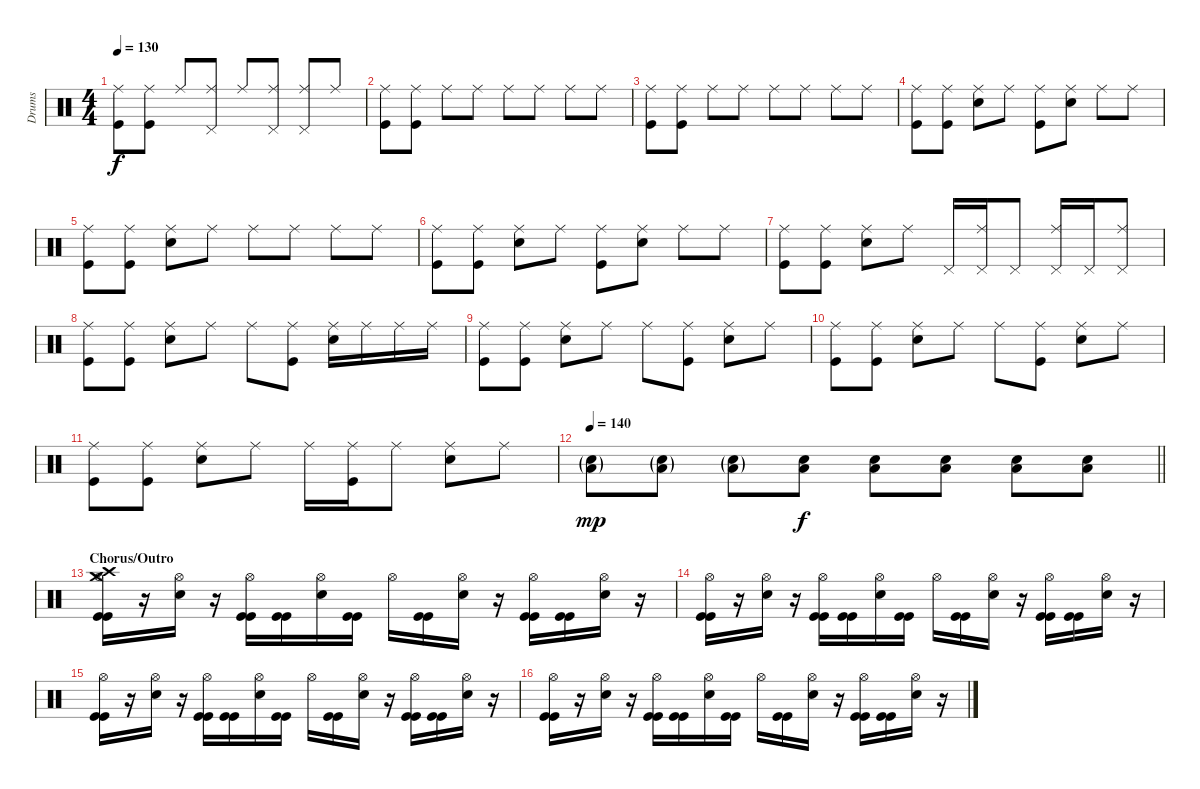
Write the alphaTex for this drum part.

\track ("Drums" "Drums") {instrument percussion}
\staff {score}
\articulation defaults
\ts (4 4)
\tempo 130
\clef neutral
\ks c
("Ride (middle)" "Kick (hit)").8{dy f} ("Ride (middle)" "Kick (hit)").8 "Ride (middle)".8 ("Ride (middle)" "Pedal Hi-Hat (hit)").8 "Ride (middle)".8 ("Ride (middle)" "Pedal Hi-Hat (hit)").8 ("Ride (middle)" "Pedal Hi-Hat (hit)").8 "Ride (middle)".8 |
("Ride (middle)" "Kick (hit)").8 ("Ride (middle)" "Kick (hit)").8 "Ride (middle)".8 "Ride (middle)".8 "Ride (middle)".8 "Ride (middle)".8 "Ride (middle)".8 "Ride (middle)".8 |
("Ride (middle)" "Kick (hit)").8 ("Ride (middle)" "Kick (hit)").8 "Ride (middle)".8 "Ride (middle)".8 "Ride (middle)".8 "Ride (middle)".8 "Ride (middle)".8 "Ride (middle)".8 |
("Ride (middle)" "Kick (hit)").8 ("Ride (middle)" "Kick (hit)").8 ("Ride (middle)" "Snare (hit) 2").8 "Ride (middle)".8 ("Ride (middle)" "Kick (hit)").8 ("Ride (middle)" "Snare (hit) 2").8 "Ride (middle)".8 "Ride (middle)".8 |
("Ride (middle)" "Kick (hit)").8 ("Ride (middle)" "Kick (hit)").8 ("Ride (middle)" "Snare (hit) 2").8 "Ride (middle)".8 "Ride (middle)".8 "Ride (middle)".8 "Ride (middle)".8 "Ride (middle)".8 |
("Ride (middle)" "Kick (hit)").8 ("Ride (middle)" "Kick (hit)").8 ("Ride (middle)" "Snare (hit) 2").8 "Ride (middle)".8 ("Ride (middle)" "Kick (hit)").8 ("Ride (middle)" "Snare (hit) 2").8 "Ride (middle)".8 "Ride (middle)".8 |
("Ride (middle)" "Kick (hit)").8 ("Ride (middle)" "Kick (hit)").8 ("Ride (middle)" "Snare (hit) 2").8 "Ride (middle)".8 "Pedal Hi-Hat (hit)".16 ("Ride (middle)" "Pedal Hi-Hat (hit)").16 "Pedal Hi-Hat (hit)".8 ("Ride (middle)" "Pedal Hi-Hat (hit)").16 "Pedal Hi-Hat (hit)".16 ("Ride (middle)" "Pedal Hi-Hat (hit)").8 |
("Ride (middle)" "Kick (hit)").8 ("Ride (middle)" "Kick (hit)").8 ("Ride (middle)" "Snare (hit) 2").8 "Ride (middle)".8 "Ride (middle)".8 ("Ride (middle)" "Kick (hit)").8 ("Ride (middle)" "Snare (hit) 2").16 "Ride (middle)".16 "Ride (middle)".16 "Ride (middle)".16 |
("Ride (middle)" "Kick (hit)").8 ("Ride (middle)" "Kick (hit)").8 ("Ride (middle)" "Snare (hit) 2").8 "Ride (middle)".8 "Ride (middle)".8 ("Ride (middle)" "Kick (hit)").8 ("Ride (middle)" "Snare (hit) 2").8 "Ride (middle)".8 |
("Ride (middle)" "Kick (hit)").8 ("Ride (middle)" "Kick (hit)").8 ("Ride (middle)" "Snare (hit) 2").8 "Ride (middle)".8 "Ride (middle)".8 ("Ride (middle)" "Kick (hit)").8 ("Ride (middle)" "Snare (hit) 2").8 "Ride (middle)".8 |
("Ride (middle)" "Kick (hit)").8 ("Ride (middle)" "Kick (hit)").8 ("Ride (middle)" "Snare (hit) 2").8 "Ride (middle)".8 "Ride (middle)".16 ("Ride (middle)" "Kick (hit)").16 "Ride (middle)".8 ("Ride (middle)" "Snare (hit) 2").8 "Ride (middle)".8 |
\tempo 140
\barLineRight lightlight
("Low Floor Tom (hit)"{g} "Snare (hit) 2"{g}).8{dy mp} ("Low Floor Tom (hit)"{g} "Snare (hit) 2"{g}).8 ("Low Floor Tom (hit)"{g} "Snare (hit) 2"{g}).8 ("Low Floor Tom (hit)" "Snare (hit) 2").8{dy f} ("Low Floor Tom (hit)" "Snare (hit) 2").8 ("Low Floor Tom (hit)" "Snare (hit) 2").8 ("Low Floor Tom (hit)" "Snare (hit) 2").8 ("Low Floor Tom (hit)" "Snare (hit) 2").8 |
\section ("" "Chorus/Outro")
("Crash medium (hit)" "Crash high (hit)" "Hi-Hat (open)" "Kick (hit)" "Kick (hit)").16 r.16 ("Hi-Hat (open)" "Snare (hit) 2").16 r.16 ("Hi-Hat (open)" "Kick (hit)" "Kick (hit)").16 ("Kick (hit)" "Kick (hit)").16 ("Hi-Hat (open)" "Snare (hit) 2").16 ("Kick (hit)" "Kick (hit)").16 "Hi-Hat (open)".16 ("Kick (hit)" "Kick (hit)").16 ("Hi-Hat (open)" "Snare (hit) 2").16 r.16 ("Hi-Hat (open)" "Kick (hit)" "Kick (hit)").16 ("Kick (hit)" "Kick (hit)").16 ("Hi-Hat (open)" "Snare (hit) 2").16 r.16 |
("Hi-Hat (open)" "Kick (hit)" "Kick (hit)").16 r.16 ("Hi-Hat (open)" "Snare (hit) 2").16 r.16 ("Hi-Hat (open)" "Kick (hit)" "Kick (hit)").16 ("Kick (hit)" "Kick (hit)").16 ("Hi-Hat (open)" "Snare (hit) 2").16 ("Kick (hit)" "Kick (hit)").16 "Hi-Hat (open)".16 ("Kick (hit)" "Kick (hit)").16 ("Hi-Hat (open)" "Snare (hit) 2").16 r.16 ("Hi-Hat (open)" "Kick (hit)" "Kick (hit)").16 ("Kick (hit)" "Kick (hit)").16 ("Hi-Hat (open)" "Snare (hit) 2").16 r.16 |
("Hi-Hat (open)" "Kick (hit)" "Kick (hit)").16 r.16 ("Hi-Hat (open)" "Snare (hit) 2").16 r.16 ("Hi-Hat (open)" "Kick (hit)" "Kick (hit)").16 ("Kick (hit)" "Kick (hit)").16 ("Hi-Hat (open)" "Snare (hit) 2").16 ("Kick (hit)" "Kick (hit)").16 "Hi-Hat (open)".16 ("Kick (hit)" "Kick (hit)").16 ("Hi-Hat (open)" "Snare (hit) 2").16 r.16 ("Hi-Hat (open)" "Kick (hit)" "Kick (hit)").16 ("Kick (hit)" "Kick (hit)").16 ("Hi-Hat (open)" "Snare (hit) 2").16 r.16 |
("Hi-Hat (open)" "Kick (hit)" "Kick (hit)").16 r.16 ("Hi-Hat (open)" "Snare (hit) 2").16 r.16 ("Hi-Hat (open)" "Kick (hit)" "Kick (hit)").16 ("Kick (hit)" "Kick (hit)").16 ("Hi-Hat (open)" "Snare (hit) 2").16 ("Kick (hit)" "Kick (hit)").16 "Hi-Hat (open)".16 ("Kick (hit)" "Kick (hit)").16 ("Hi-Hat (open)" "Snare (hit) 2").16 r.16 ("Hi-Hat (open)" "Kick (hit)" "Kick (hit)").16 ("Kick (hit)" "Kick (hit)").16 ("Hi-Hat (open)" "Snare (hit) 2").16 r.16
